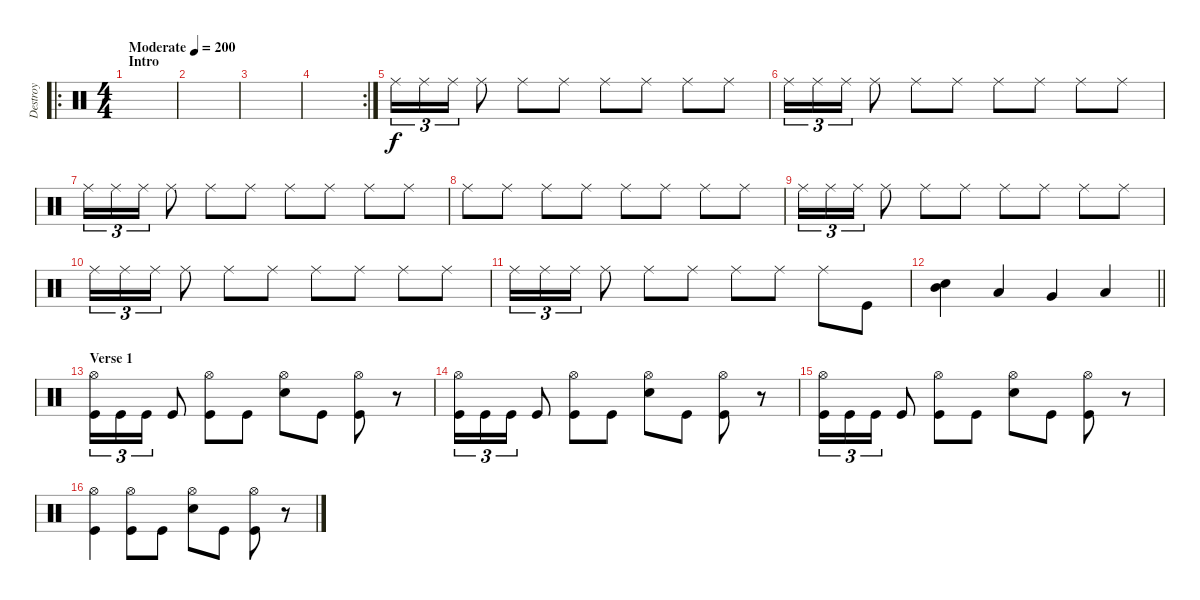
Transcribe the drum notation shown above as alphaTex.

\track ("Destroy" "Destroy") {instrument percussion}
\staff {score}
\articulation defaults
\ro
\ts (4 4)
\section ("" "Intro")
\tempo (200 "Moderate")
\clef neutral
\ks c
|
|
|
\rc 2
|
"Ride (middle)".16{tu (3 2)} "Ride (middle)".16{tu (3 2)} "Ride (middle)".16{tu (3 2)} "Ride (middle)".8 "Ride (middle)".8 "Ride (middle)".8 "Ride (middle)".8 "Ride (middle)".8 "Ride (middle)".8 "Ride (middle)".8 |
"Ride (middle)".16{tu (3 2)} "Ride (middle)".16{tu (3 2)} "Ride (middle)".16{tu (3 2)} "Ride (middle)".8 "Ride (middle)".8 "Ride (middle)".8 "Ride (middle)".8 "Ride (middle)".8 "Ride (middle)".8 "Ride (middle)".8 |
"Ride (middle)".16{tu (3 2)} "Ride (middle)".16{tu (3 2)} "Ride (middle)".16{tu (3 2)} "Ride (middle)".8 "Ride (middle)".8 "Ride (middle)".8 "Ride (middle)".8 "Ride (middle)".8 "Ride (middle)".8 "Ride (middle)".8 |
"Ride (middle)".8 "Ride (middle)".8 "Ride (middle)".8 "Ride (middle)".8 "Ride (middle)".8 "Ride (middle)".8 "Ride (middle)".8 "Ride (middle)".8 |
"Ride (middle)".16{tu (3 2)} "Ride (middle)".16{tu (3 2)} "Ride (middle)".16{tu (3 2)} "Ride (middle)".8 "Ride (middle)".8 "Ride (middle)".8 "Ride (middle)".8 "Ride (middle)".8 "Ride (middle)".8 "Ride (middle)".8 |
"Ride (middle)".16{tu (3 2)} "Ride (middle)".16{tu (3 2)} "Ride (middle)".16{tu (3 2)} "Ride (middle)".8 "Ride (middle)".8 "Ride (middle)".8 "Ride (middle)".8 "Ride (middle)".8 "Ride (middle)".8 "Ride (middle)".8 |
"Ride (middle)".16{tu (3 2)} "Ride (middle)".16{tu (3 2)} "Ride (middle)".16{tu (3 2)} "Ride (middle)".8 "Ride (middle)".8 "Ride (middle)".8 "Ride (middle)".8 "Ride (middle)".8 "Ride (middle)".8 "Kick (hit)".8 |
\barLineRight lightlight
("Mid Tom (hit)" "Snare (hit) 2").4 "Low Tom (hit)".4 "Very Low Tom (hit)".4 "Low Floor Tom (hit)".4 |
\section ("" "Verse 1")
("Hi-Hat (open)" "Kick (hit)").16{tu (3 2)} "Kick (hit)".16{tu (3 2)} "Kick (hit)".16{tu (3 2)} "Kick (hit)".8 ("Hi-Hat (open)" "Kick (hit)").8 "Kick (hit)".8 ("Hi-Hat (open)" "Snare (hit) 2").8 "Kick (hit)".8 ("Hi-Hat (open)" "Kick (hit)").8 r.8 |
("Hi-Hat (open)" "Kick (hit)").16{tu (3 2)} "Kick (hit)".16{tu (3 2)} "Kick (hit)".16{tu (3 2)} "Kick (hit)".8 ("Hi-Hat (open)" "Kick (hit)").8 "Kick (hit)".8 ("Hi-Hat (open)" "Snare (hit) 2").8 "Kick (hit)".8 ("Hi-Hat (open)" "Kick (hit)").8 r.8 |
("Hi-Hat (open)" "Kick (hit)").16{tu (3 2)} "Kick (hit)".16{tu (3 2)} "Kick (hit)".16{tu (3 2)} "Kick (hit)".8 ("Hi-Hat (open)" "Kick (hit)").8 "Kick (hit)".8 ("Hi-Hat (open)" "Snare (hit) 2").8 "Kick (hit)".8 ("Hi-Hat (open)" "Kick (hit)").8 r.8 |
("Hi-Hat (open)" "Kick (hit)").4 ("Hi-Hat (open)" "Kick (hit)").8 "Kick (hit)".8 ("Hi-Hat (open)" "Snare (hit) 2").8 "Kick (hit)".8 ("Hi-Hat (open)" "Kick (hit)").8 r.8
